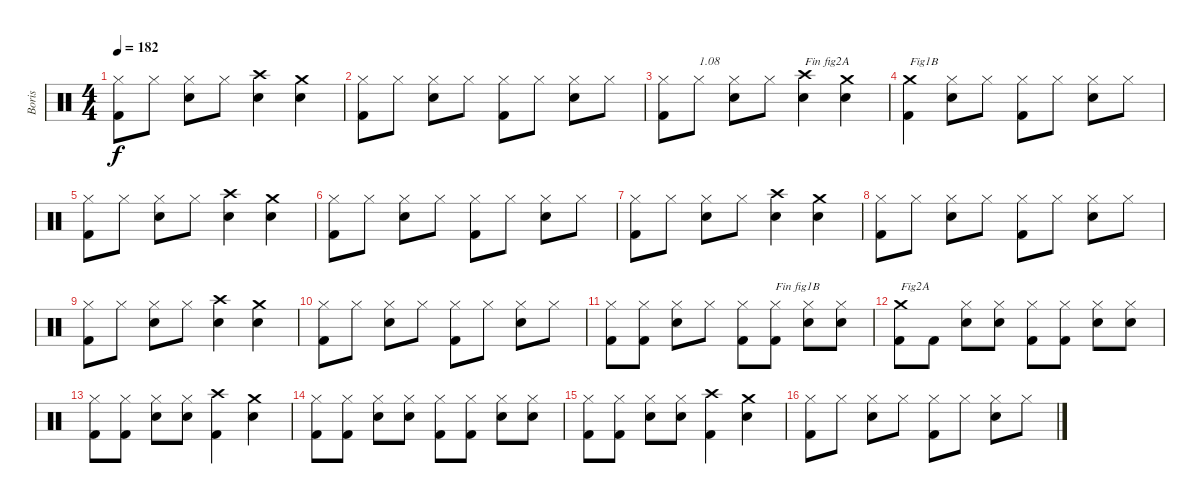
\track ("Boris" "Boris") {instrument percussion}
\staff {score}
\articulation defaults
\ts (4 4)
\tempo 182
\clef neutral
\ks c
("Kick (hit) 2" "Hi-Hat (closed)").8{dy f} "Hi-Hat (closed)".8 ("Electric Snare (hit)" "Hi-Hat (closed)").8 "Hi-Hat (closed)".8 ("Electric Snare (hit)" "Crash high (hit)").4 ("Electric Snare (hit)" "Crash medium (hit)").4 |
("Kick (hit) 2" "Hi-Hat (closed)").8 "Hi-Hat (closed)".8 ("Electric Snare (hit)" "Hi-Hat (closed)").8 "Hi-Hat (closed)".8 ("Kick (hit) 2" "Hi-Hat (closed)").8 "Hi-Hat (closed)".8 ("Electric Snare (hit)" "Hi-Hat (closed)").8 "Hi-Hat (closed)".8 |
("Kick (hit) 2" "Hi-Hat (closed)").8 "Hi-Hat (closed)".8{txt "1.08"} ("Electric Snare (hit)" "Hi-Hat (closed)").8 "Hi-Hat (closed)".8 ("Electric Snare (hit)" "Crash high (hit)").4{txt "Fin fig2A"} ("Electric Snare (hit)" "Crash medium (hit)").4 |
("Kick (hit) 2" "Crash medium (hit)").4{txt "Fig1B"} ("Electric Snare (hit)" "Hi-Hat (closed)").8 "Hi-Hat (closed)".8 ("Kick (hit) 2" "Hi-Hat (closed)").8 "Hi-Hat (closed)".8 ("Electric Snare (hit)" "Hi-Hat (closed)").8 "Hi-Hat (closed)".8 |
("Kick (hit) 2" "Hi-Hat (closed)").8 "Hi-Hat (closed)".8 ("Electric Snare (hit)" "Hi-Hat (closed)").8 "Hi-Hat (closed)".8 ("Electric Snare (hit)" "Crash high (hit)").4 ("Electric Snare (hit)" "Crash medium (hit)").4 |
("Kick (hit) 2" "Hi-Hat (closed)").8 "Hi-Hat (closed)".8 ("Electric Snare (hit)" "Hi-Hat (closed)").8 "Hi-Hat (closed)".8 ("Kick (hit) 2" "Hi-Hat (closed)").8 "Hi-Hat (closed)".8 ("Electric Snare (hit)" "Hi-Hat (closed)").8 "Hi-Hat (closed)".8 |
("Kick (hit) 2" "Hi-Hat (closed)").8 "Hi-Hat (closed)".8 ("Electric Snare (hit)" "Hi-Hat (closed)").8 "Hi-Hat (closed)".8 ("Electric Snare (hit)" "Crash high (hit)").4 ("Electric Snare (hit)" "Crash medium (hit)").4 |
("Kick (hit) 2" "Hi-Hat (closed)").8 "Hi-Hat (closed)".8 ("Electric Snare (hit)" "Hi-Hat (closed)").8 "Hi-Hat (closed)".8 ("Kick (hit) 2" "Hi-Hat (closed)").8 "Hi-Hat (closed)".8 ("Electric Snare (hit)" "Hi-Hat (closed)").8 "Hi-Hat (closed)".8 |
("Kick (hit) 2" "Hi-Hat (closed)").8 "Hi-Hat (closed)".8 ("Electric Snare (hit)" "Hi-Hat (closed)").8 "Hi-Hat (closed)".8 ("Electric Snare (hit)" "Crash high (hit)").4 ("Electric Snare (hit)" "Crash medium (hit)").4 |
("Kick (hit) 2" "Hi-Hat (closed)").8 "Hi-Hat (closed)".8 ("Electric Snare (hit)" "Hi-Hat (closed)").8 "Hi-Hat (closed)".8 ("Kick (hit) 2" "Hi-Hat (closed)").8 "Hi-Hat (closed)".8 ("Electric Snare (hit)" "Hi-Hat (closed)").8 "Hi-Hat (closed)".8 |
("Kick (hit) 2" "Hi-Hat (closed)").8 ("Kick (hit) 2" "Hi-Hat (closed)").8 ("Electric Snare (hit)" "Hi-Hat (closed)").8 "Hi-Hat (closed)".8 ("Kick (hit) 2" "Hi-Hat (closed)").8 ("Kick (hit) 2" "Hi-Hat (closed)").8{txt "Fin fig1B"} ("Electric Snare (hit)" "Hi-Hat (closed)").8 ("Electric Snare (hit)" "Hi-Hat (closed)").8 |
("Kick (hit) 2" "Crash medium (hit)").8{txt "Fig2A"} "Kick (hit) 2".8 ("Electric Snare (hit)" "Hi-Hat (closed)").8 ("Electric Snare (hit)" "Hi-Hat (closed)").8 ("Kick (hit) 2" "Hi-Hat (closed)").8 ("Kick (hit) 2" "Hi-Hat (closed)").8 ("Electric Snare (hit)" "Hi-Hat (closed)").8 ("Electric Snare (hit)" "Hi-Hat (closed)").8 |
("Kick (hit) 2" "Hi-Hat (closed)").8 ("Kick (hit) 2" "Hi-Hat (closed)").8 ("Electric Snare (hit)" "Hi-Hat (closed)").8 ("Electric Snare (hit)" "Hi-Hat (closed)").8 ("Kick (hit) 2" "Crash high (hit)").4 ("Electric Snare (hit)" "Crash medium (hit)").4 |
("Kick (hit) 2" "Hi-Hat (closed)").8 ("Kick (hit) 2" "Hi-Hat (closed)").8 ("Electric Snare (hit)" "Hi-Hat (closed)").8 ("Electric Snare (hit)" "Hi-Hat (closed)").8 ("Kick (hit) 2" "Hi-Hat (closed)").8 ("Kick (hit) 2" "Hi-Hat (closed)").8 ("Electric Snare (hit)" "Hi-Hat (closed)").8 ("Electric Snare (hit)" "Hi-Hat (closed)").8 |
("Kick (hit) 2" "Hi-Hat (closed)").8 ("Kick (hit) 2" "Hi-Hat (closed)").8 ("Electric Snare (hit)" "Hi-Hat (closed)").8 ("Electric Snare (hit)" "Hi-Hat (closed)").8 ("Kick (hit) 2" "Crash high (hit)").4 ("Electric Snare (hit)" "Crash medium (hit)").4 |
("Kick (hit) 2" "Hi-Hat (closed)").8 "Hi-Hat (closed)".8 ("Electric Snare (hit)" "Hi-Hat (closed)").8 "Hi-Hat (closed)".8 ("Kick (hit) 2" "Hi-Hat (closed)").8 "Hi-Hat (closed)".8 ("Electric Snare (hit)" "Hi-Hat (closed)").8 "Hi-Hat (closed)".8
